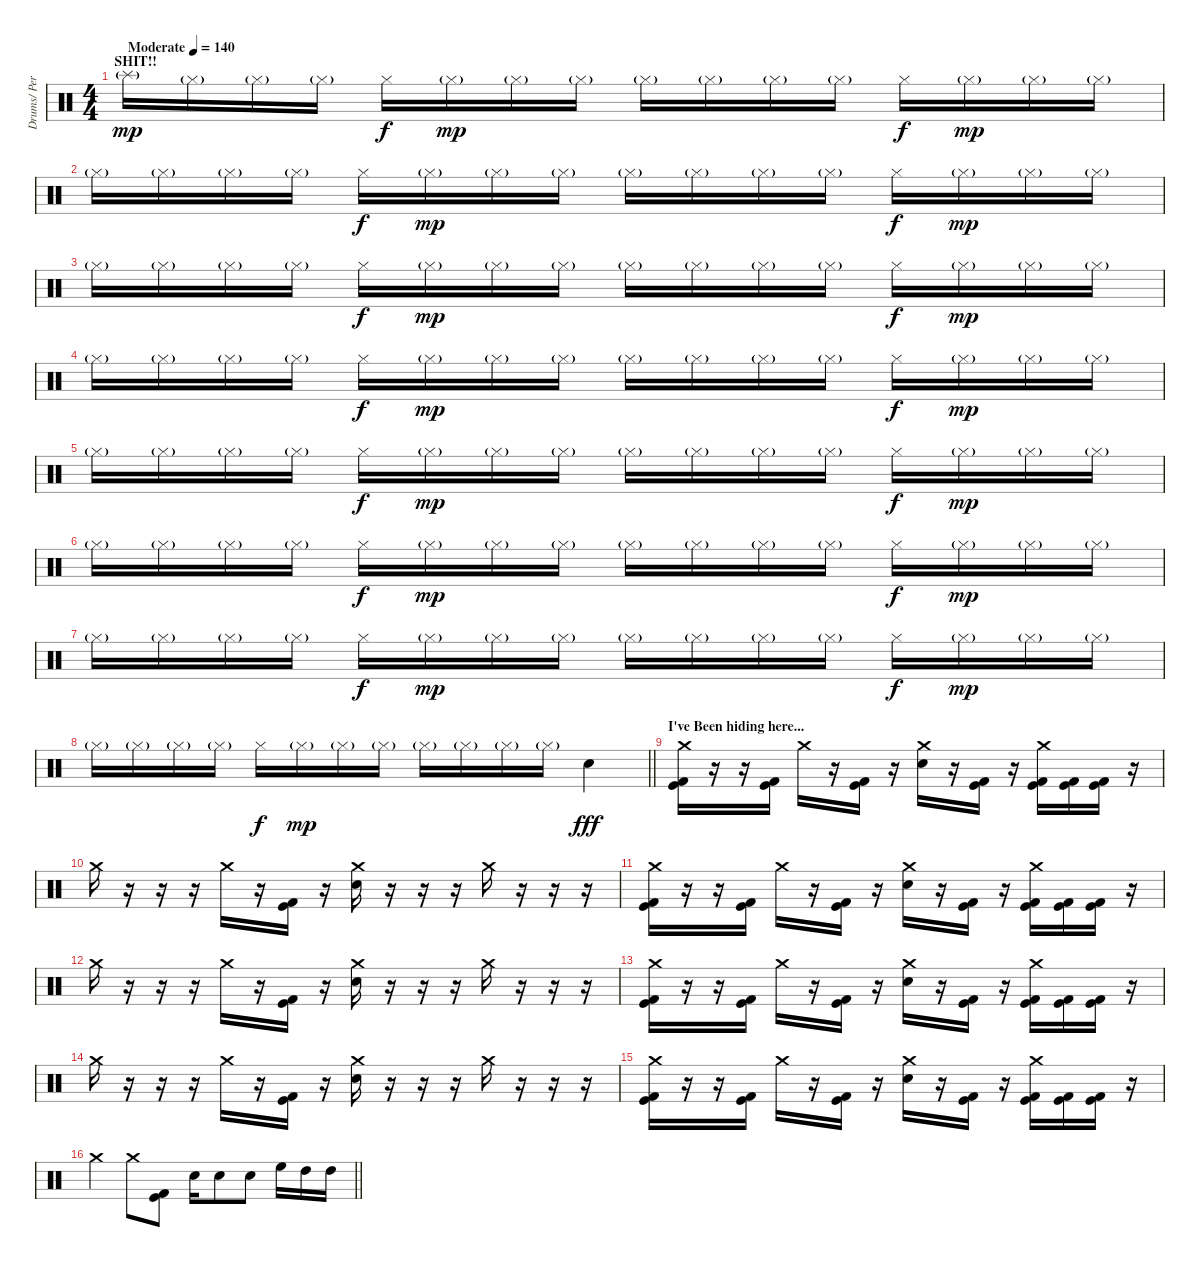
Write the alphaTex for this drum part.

\track ("Drums/ Percussion- Rob" "Drums/ Per") {instrument percussion}
\staff {score}
\articulation defaults
\ts (4 4)
\section ("" "SHIT!!")
\tempo (140 "Moderate")
\clef neutral
\ks c "Splash (hit)"{g}.16{dy mp} "Hi-Hat (closed)"{g}.16 "Hi-Hat (closed)"{g}.16 "Hi-Hat (closed)"{g}.16 "Hi-Hat (closed)".16{dy f} "Hi-Hat (closed)"{g}.16{dy mp} "Hi-Hat (closed)"{g}.16 "Hi-Hat (closed)"{g}.16 "Hi-Hat (closed)"{g}.16 "Hi-Hat (closed)"{g}.16 "Hi-Hat (closed)"{g}.16 "Hi-Hat (closed)"{g}.16 "Hi-Hat (closed)".16{dy f} "Hi-Hat (closed)"{g}.16{dy mp} "Hi-Hat (closed)"{g}.16 "Hi-Hat (closed)"{g}.16
|
"Hi-Hat (closed)"{g}.16 "Hi-Hat (closed)"{g}.16 "Hi-Hat (closed)"{g}.16 "Hi-Hat (closed)"{g}.16 "Hi-Hat (closed)".16{dy f} "Hi-Hat (closed)"{g}.16{dy mp} "Hi-Hat (closed)"{g}.16 "Hi-Hat (closed)"{g}.16 "Hi-Hat (closed)"{g}.16 "Hi-Hat (closed)"{g}.16 "Hi-Hat (closed)"{g}.16 "Hi-Hat (closed)"{g}.16 "Hi-Hat (closed)".16{dy f} "Hi-Hat (closed)"{g}.16{dy mp} "Hi-Hat (closed)"{g}.16 "Hi-Hat (closed)"{g}.16 |
"Hi-Hat (closed)"{g}.16 "Hi-Hat (closed)"{g}.16 "Hi-Hat (closed)"{g}.16 "Hi-Hat (closed)"{g}.16 "Hi-Hat (closed)".16{dy f} "Hi-Hat (closed)"{g}.16{dy mp} "Hi-Hat (closed)"{g}.16 "Hi-Hat (closed)"{g}.16 "Hi-Hat (closed)"{g}.16 "Hi-Hat (closed)"{g}.16 "Hi-Hat (closed)"{g}.16 "Hi-Hat (closed)"{g}.16 "Hi-Hat (closed)".16{dy f} "Hi-Hat (closed)"{g}.16{dy mp} "Hi-Hat (closed)"{g}.16 "Hi-Hat (closed)"{g}.16 |
"Hi-Hat (closed)"{g}.16 "Hi-Hat (closed)"{g}.16 "Hi-Hat (closed)"{g}.16 "Hi-Hat (closed)"{g}.16 "Hi-Hat (closed)".16{dy f} "Hi-Hat (closed)"{g}.16{dy mp} "Hi-Hat (closed)"{g}.16 "Hi-Hat (closed)"{g}.16 "Hi-Hat (closed)"{g}.16 "Hi-Hat (closed)"{g}.16 "Hi-Hat (closed)"{g}.16 "Hi-Hat (closed)"{g}.16 "Hi-Hat (closed)".16{dy f} "Hi-Hat (closed)"{g}.16{dy mp} "Hi-Hat (closed)"{g}.16 "Hi-Hat (closed)"{g}.16 |
"Hi-Hat (closed)"{g}.16 "Hi-Hat (closed)"{g}.16 "Hi-Hat (closed)"{g}.16 "Hi-Hat (closed)"{g}.16 "Hi-Hat (closed)".16{dy f} "Hi-Hat (closed)"{g}.16{dy mp} "Hi-Hat (closed)"{g}.16 "Hi-Hat (closed)"{g}.16 "Hi-Hat (closed)"{g}.16 "Hi-Hat (closed)"{g}.16 "Hi-Hat (closed)"{g}.16 "Hi-Hat (closed)"{g}.16 "Hi-Hat (closed)".16{dy f} "Hi-Hat (closed)"{g}.16{dy mp} "Hi-Hat (closed)"{g}.16 "Hi-Hat (closed)"{g}.16 |
"Hi-Hat (closed)"{g}.16 "Hi-Hat (closed)"{g}.16 "Hi-Hat (closed)"{g}.16 "Hi-Hat (closed)"{g}.16 "Hi-Hat (closed)".16{dy f} "Hi-Hat (closed)"{g}.16{dy mp} "Hi-Hat (closed)"{g}.16 "Hi-Hat (closed)"{g}.16 "Hi-Hat (closed)"{g}.16 "Hi-Hat (closed)"{g}.16 "Hi-Hat (closed)"{g}.16 "Hi-Hat (closed)"{g}.16 "Hi-Hat (closed)".16{dy f} "Hi-Hat (closed)"{g}.16{dy mp} "Hi-Hat (closed)"{g}.16 "Hi-Hat (closed)"{g}.16 |
"Hi-Hat (closed)"{g}.16 "Hi-Hat (closed)"{g}.16 "Hi-Hat (closed)"{g}.16 "Hi-Hat (closed)"{g}.16 "Hi-Hat (closed)".16{dy f} "Hi-Hat (closed)"{g}.16{dy mp} "Hi-Hat (closed)"{g}.16 "Hi-Hat (closed)"{g}.16 "Hi-Hat (closed)"{g}.16 "Hi-Hat (closed)"{g}.16 "Hi-Hat (closed)"{g}.16 "Hi-Hat (closed)"{g}.16 "Hi-Hat (closed)".16{dy f} "Hi-Hat (closed)"{g}.16{dy mp} "Hi-Hat (closed)"{g}.16 "Hi-Hat (closed)"{g}.16 |
\barLineRight lightlight "Hi-Hat (closed)"{g}.16 "Hi-Hat (closed)"{g}.16 "Hi-Hat (closed)"{g}.16 "Hi-Hat (closed)"{g}.16 "Hi-Hat (closed)".16{dy f} "Hi-Hat (closed)"{g}.16{dy mp} "Hi-Hat (closed)"{g}.16 "Hi-Hat (closed)"{g}.16 "Hi-Hat (closed)"{g}.16 "Hi-Hat (closed)"{g}.16 "Hi-Hat (closed)"{g}.16 "Hi-Hat (closed)"{g}.16 "Snare (hit) 2".4{dy fff}
|
\section ("" "I've Been hiding here...")
("Crash medium (hit)" "Kick (hit) 2" "Kick (hit)").16 r.16 r.16 ("Kick (hit) 2" "Kick (hit)").16 "Crash medium (hit)".16 r.16 ("Kick (hit) 2" "Kick (hit)").16 r.16 ("Crash medium (hit)" "Snare (hit) 2").16 r.16 ("Kick (hit) 2" "Kick (hit)").16 r.16 ("Crash medium (hit)" "Kick (hit) 2" "Kick (hit)").16 ("Kick (hit) 2" "Kick (hit)").16 ("Kick (hit) 2" "Kick (hit)").16 r.16 |
"Crash medium (hit)".16 r.16 r.16 r.16 "Crash medium (hit)".16 r.16 ("Kick (hit) 2" "Kick (hit)").16 r.16 ("Crash medium (hit)" "Snare (hit) 2").16 r.16 r.16 r.16 "Crash medium (hit)".16 r.16 r.16 r.16 |
("Crash medium (hit)" "Kick (hit) 2" "Kick (hit)").16 r.16 r.16 ("Kick (hit) 2" "Kick (hit)").16 "Crash medium (hit)".16 r.16 ("Kick (hit) 2" "Kick (hit)").16 r.16 ("Crash medium (hit)" "Snare (hit) 2").16 r.16 ("Kick (hit) 2" "Kick (hit)").16 r.16 ("Crash medium (hit)" "Kick (hit) 2" "Kick (hit)").16 ("Kick (hit) 2" "Kick (hit)").16 ("Kick (hit) 2" "Kick (hit)").16 r.16 |
"Crash medium (hit)".16 r.16 r.16 r.16 "Crash medium (hit)".16 r.16 ("Kick (hit) 2" "Kick (hit)").16 r.16 ("Crash medium (hit)" "Snare (hit) 2").16 r.16 r.16 r.16 "Crash medium (hit)".16 r.16 r.16 r.16 |
("Crash medium (hit)" "Kick (hit) 2" "Kick (hit)").16 r.16 r.16 ("Kick (hit) 2" "Kick (hit)").16 "Crash medium (hit)".16 r.16 ("Kick (hit) 2" "Kick (hit)").16 r.16 ("Crash medium (hit)" "Snare (hit) 2").16 r.16 ("Kick (hit) 2" "Kick (hit)").16 r.16 ("Crash medium (hit)" "Kick (hit) 2" "Kick (hit)").16 ("Kick (hit) 2" "Kick (hit)").16 ("Kick (hit) 2" "Kick (hit)").16 r.16 |
"Crash medium (hit)".16 r.16 r.16 r.16 "Crash medium (hit)".16 r.16 ("Kick (hit) 2" "Kick (hit)").16 r.16 ("Crash medium (hit)" "Snare (hit) 2").16 r.16 r.16 r.16 "Crash medium (hit)".16 r.16 r.16 r.16 |
("Crash medium (hit)" "Kick (hit) 2" "Kick (hit)").16 r.16 r.16 ("Kick (hit) 2" "Kick (hit)").16 "Crash medium (hit)".16 r.16 ("Kick (hit) 2" "Kick (hit)").16 r.16 ("Crash medium (hit)" "Snare (hit) 2").16 r.16 ("Kick (hit) 2" "Kick (hit)").16 r.16 ("Crash medium (hit)" "Kick (hit) 2" "Kick (hit)").16 ("Kick (hit) 2" "Kick (hit)").16 ("Kick (hit) 2" "Kick (hit)").16 r.16 |
\barLineRight lightlight "Crash medium (hit)".4 "Crash medium (hit)".8
("Kick (hit)" "Kick (hit) 2").8 "Snare (hit) 2".16 "Snare (hit) 2".8 "Snare (hit) 2".8 "High Floor Tom (hit)".16 "High Tom (hit)".16 "High Tom (hit)".16
